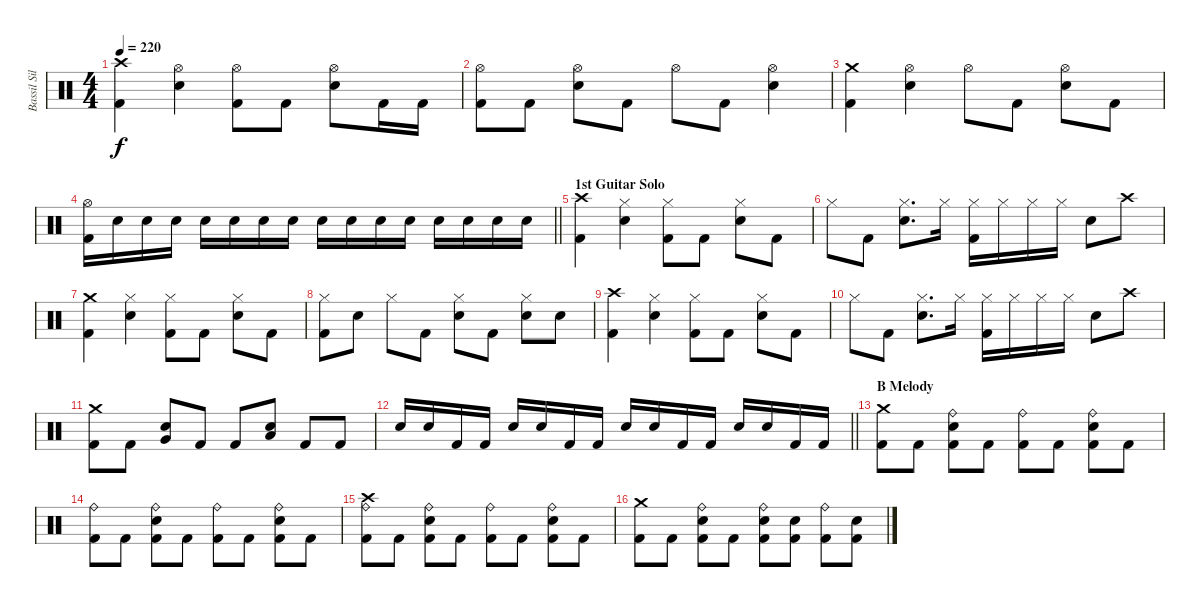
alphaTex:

\track ("Bassil Silver-Hajo" "Bassil Sil") {instrument percussion}
\staff {score}
\articulation defaults
\ts (4 4)
\tempo 220
\clef neutral
\ks c
("Crash high (hit)" "Kick (hit) 2").4{dy f} ("Hi-Hat (open)" "Snare (hit) 2").4 ("Hi-Hat (open)" "Kick (hit) 2").8 "Kick (hit) 2".8 ("Hi-Hat (open)" "Snare (hit) 2").8 "Kick (hit) 2".16 "Kick (hit) 2".16 |
("Hi-Hat (open)" "Kick (hit) 2").8 "Kick (hit) 2".8 ("Hi-Hat (open)" "Snare (hit) 2").8 "Kick (hit) 2".8 "Hi-Hat (open)".8 "Kick (hit) 2".8 ("Hi-Hat (open)" "Snare (hit) 2").4 |
("Crash medium (hit)" "Kick (hit) 2").4 ("Hi-Hat (open)" "Snare (hit) 2").4 "Hi-Hat (open)".8 "Kick (hit) 2".8 ("Hi-Hat (open)" "Snare (hit) 2").8 "Kick (hit) 2".8 |
\barLineRight lightlight
("Hi-Hat (open)" "Kick (hit) 2").16 "Snare (hit) 2".16 "Snare (hit) 2".16 "Snare (hit) 2".16 "Snare (hit) 2".16 "Snare (hit) 2".16 "Snare (hit) 2".16 "Snare (hit) 2".16 "Snare (hit) 2".16 "Snare (hit) 2".16 "Snare (hit) 2".16 "Snare (hit) 2".16 "Snare (hit) 2".16 "Snare (hit) 2".16 "Snare (hit) 2".16 "Snare (hit) 2".16 |
\section ("" "1st Guitar Solo")
("Crash high (hit)" "Kick (hit) 2").4 ("Hi-Hat (closed)" "Snare (hit) 2").4 ("Hi-Hat (closed)" "Kick (hit) 2").8 "Kick (hit) 2".8 ("Hi-Hat (closed)" "Snare (hit) 2").8 "Kick (hit) 2".8 |
"Hi-Hat (closed)".8 "Kick (hit) 2".8 ("Hi-Hat (closed)" "Snare (hit) 2").8{d} "Hi-Hat (closed)".16 ("Hi-Hat (closed)" "Kick (hit) 2").16 "Hi-Hat (closed)".16 "Hi-Hat (closed)".16 "Hi-Hat (closed)".16 "Snare (hit) 2".8 "Crash high (hit)".8 |
("Crash medium (hit)" "Kick (hit) 2").4 ("Hi-Hat (closed)" "Snare (hit) 2").4 ("Hi-Hat (closed)" "Kick (hit) 2").8 "Kick (hit) 2".8 ("Hi-Hat (closed)" "Snare (hit) 2").8 "Kick (hit) 2".8 |
("Hi-Hat (closed)" "Kick (hit) 2").8 "Snare (hit) 2".8 "Hi-Hat (closed)".8 "Kick (hit) 2".8 ("Hi-Hat (closed)" "Snare (hit) 2").8 "Kick (hit) 2".8 ("Hi-Hat (closed)" "Snare (hit) 2").8 "Snare (hit) 2".8 |
("Crash high (hit)" "Kick (hit) 2").4 ("Hi-Hat (closed)" "Snare (hit) 2").4 ("Hi-Hat (closed)" "Kick (hit) 2").8 "Kick (hit) 2".8 ("Hi-Hat (closed)" "Snare (hit) 2").8 "Kick (hit) 2".8 |
"Hi-Hat (closed)".8 "Kick (hit) 2".8 ("Hi-Hat (closed)" "Snare (hit) 2").8{d} "Hi-Hat (closed)".16 ("Hi-Hat (closed)" "Kick (hit) 2").16 "Hi-Hat (closed)".16 "Hi-Hat (closed)".16 "Hi-Hat (closed)".16 "Snare (hit) 2".8 "Crash high (hit)".8 |
("Crash medium (hit)" "Kick (hit) 2").8 "Kick (hit) 2".8 ("Very Low Tom (hit)" "Snare (hit) 2").8 "Kick (hit) 2".8 "Kick (hit) 2".8 ("Low Floor Tom (hit)" "Snare (hit) 2").8 "Kick (hit) 2".8 "Kick (hit) 2".8 |
\barLineRight lightlight "Snare (hit) 2".16 "Snare (hit) 2".16 "Kick (hit) 2".16 "Kick (hit) 2".16 "Snare (hit) 2".16 "Snare (hit) 2".16 "Kick (hit) 2".16 "Kick (hit) 2".16 "Snare (hit) 2".16 "Snare (hit) 2".16 "Kick (hit) 2".16 "Kick (hit) 2".16 "Snare (hit) 2".16 "Snare (hit) 2".16 "Kick (hit) 2".16 "Kick (hit) 2".16
|
\section ("" "B Melody")
("Crash medium (hit)" "Kick (hit) 2").8 "Kick (hit) 2".8 ("Ride (bell)" "Snare (hit) 2" "Kick (hit) 2").8 "Kick (hit) 2".8 ("Ride (bell)" "Kick (hit) 2").8 "Kick (hit) 2".8 ("Ride (bell)" "Snare (hit) 2" "Kick (hit) 2").8 "Kick (hit) 2".8 |
("Ride (bell)" "Kick (hit) 2").8 "Kick (hit) 2".8 ("Ride (bell)" "Snare (hit) 2" "Kick (hit) 2").8 "Kick (hit) 2".8 ("Ride (bell)" "Kick (hit) 2").8 "Kick (hit) 2".8 ("Ride (bell)" "Snare (hit) 2" "Kick (hit) 2").8 "Kick (hit) 2".8 |
("Crash high (hit)" "Ride (bell)" "Kick (hit) 2").8 "Kick (hit) 2".8 ("Ride (bell)" "Snare (hit) 2" "Kick (hit) 2").8 "Kick (hit) 2".8 ("Ride (bell)" "Kick (hit) 2").8 "Kick (hit) 2".8 ("Ride (bell)" "Snare (hit) 2" "Kick (hit) 2").8 "Kick (hit) 2".8 |
("Crash medium (hit)" "Kick (hit) 2").8 "Kick (hit) 2".8 ("Ride (bell)" "Snare (hit) 2" "Kick (hit) 2").8 "Kick (hit) 2".8 ("Ride (bell)" "Snare (hit) 2" "Kick (hit) 2").8 ("Snare (hit) 2" "Kick (hit) 2").8 ("Ride (bell)" "Kick (hit) 2").8 ("Snare (hit) 2" "Kick (hit) 2").8
